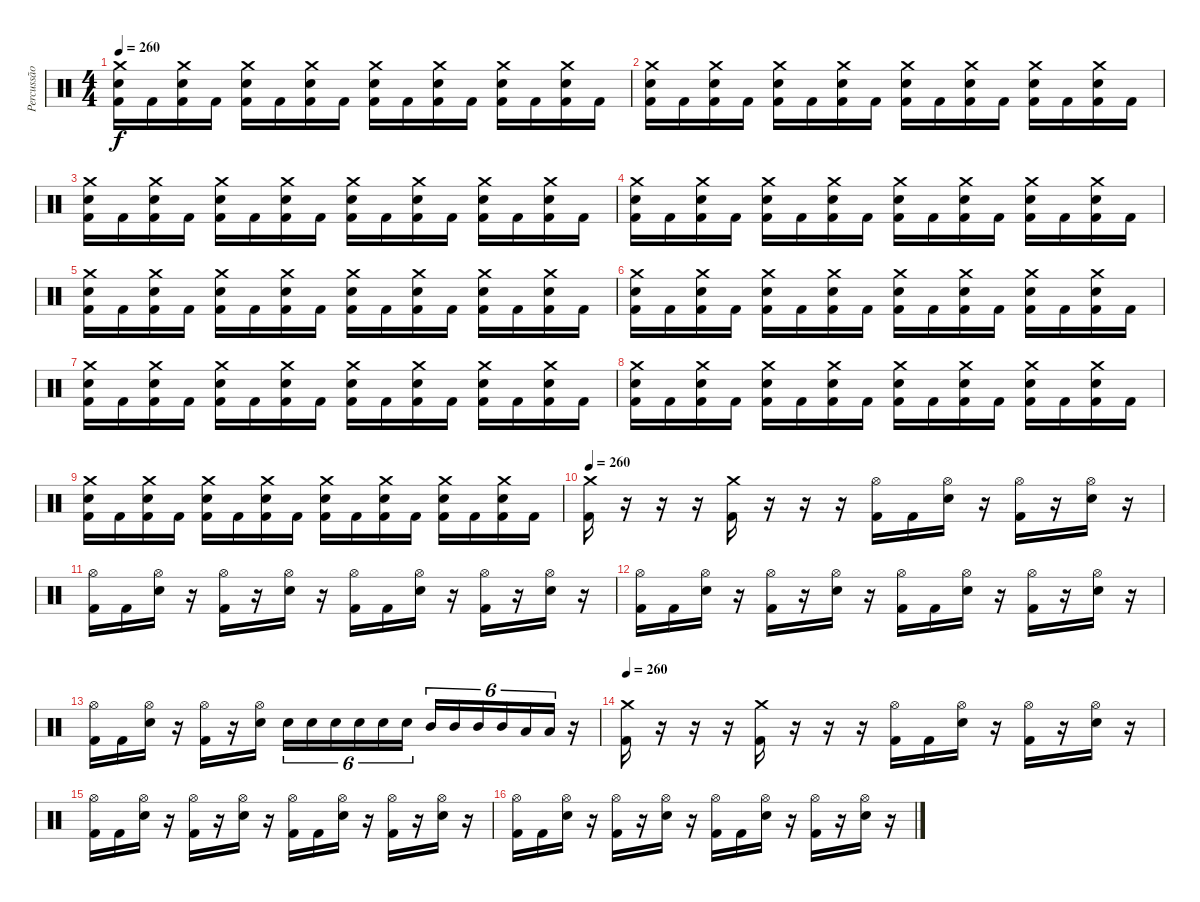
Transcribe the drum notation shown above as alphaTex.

\track ("Percussão" "Percussão") {instrument percussion}
\staff {score}
\articulation defaults
\ts (4 4)
\tempo 260
\clef neutral
\ks c
("Crash medium (hit)" "Snare (hit) 2" "Kick (hit) 2").16{dy f} "Kick (hit) 2".16 ("Crash medium (hit)" "Snare (hit) 2" "Kick (hit) 2").16 "Kick (hit) 2".16 ("Crash medium (hit)" "Snare (hit) 2" "Kick (hit) 2").16 "Kick (hit) 2".16 ("Crash medium (hit)" "Snare (hit) 2" "Kick (hit) 2").16 "Kick (hit) 2".16 ("Crash medium (hit)" "Snare (hit) 2" "Kick (hit) 2").16 "Kick (hit) 2".16 ("Crash medium (hit)" "Snare (hit) 2" "Kick (hit) 2").16 "Kick (hit) 2".16 ("Crash medium (hit)" "Snare (hit) 2" "Kick (hit) 2").16 "Kick (hit) 2".16 ("Crash medium (hit)" "Snare (hit) 2" "Kick (hit) 2").16 "Kick (hit) 2".16 |
("Crash medium (hit)" "Snare (hit) 2" "Kick (hit) 2").16 "Kick (hit) 2".16 ("Crash medium (hit)" "Snare (hit) 2" "Kick (hit) 2").16 "Kick (hit) 2".16 ("Crash medium (hit)" "Snare (hit) 2" "Kick (hit) 2").16 "Kick (hit) 2".16 ("Crash medium (hit)" "Snare (hit) 2" "Kick (hit) 2").16 "Kick (hit) 2".16 ("Crash medium (hit)" "Snare (hit) 2" "Kick (hit) 2").16 "Kick (hit) 2".16 ("Crash medium (hit)" "Snare (hit) 2" "Kick (hit) 2").16 "Kick (hit) 2".16 ("Crash medium (hit)" "Snare (hit) 2" "Kick (hit) 2").16 "Kick (hit) 2".16 ("Crash medium (hit)" "Snare (hit) 2" "Kick (hit) 2").16 "Kick (hit) 2".16 |
("Crash medium (hit)" "Snare (hit) 2" "Kick (hit) 2").16 "Kick (hit) 2".16 ("Crash medium (hit)" "Snare (hit) 2" "Kick (hit) 2").16 "Kick (hit) 2".16 ("Crash medium (hit)" "Snare (hit) 2" "Kick (hit) 2").16 "Kick (hit) 2".16 ("Crash medium (hit)" "Snare (hit) 2" "Kick (hit) 2").16 "Kick (hit) 2".16 ("Crash medium (hit)" "Snare (hit) 2" "Kick (hit) 2").16 "Kick (hit) 2".16 ("Crash medium (hit)" "Snare (hit) 2" "Kick (hit) 2").16 "Kick (hit) 2".16 ("Crash medium (hit)" "Snare (hit) 2" "Kick (hit) 2").16 "Kick (hit) 2".16 ("Crash medium (hit)" "Snare (hit) 2" "Kick (hit) 2").16 "Kick (hit) 2".16 |
("Crash medium (hit)" "Snare (hit) 2" "Kick (hit) 2").16 "Kick (hit) 2".16 ("Crash medium (hit)" "Snare (hit) 2" "Kick (hit) 2").16 "Kick (hit) 2".16 ("Crash medium (hit)" "Snare (hit) 2" "Kick (hit) 2").16 "Kick (hit) 2".16 ("Crash medium (hit)" "Snare (hit) 2" "Kick (hit) 2").16 "Kick (hit) 2".16 ("Crash medium (hit)" "Snare (hit) 2" "Kick (hit) 2").16 "Kick (hit) 2".16 ("Crash medium (hit)" "Snare (hit) 2" "Kick (hit) 2").16 "Kick (hit) 2".16 ("Crash medium (hit)" "Snare (hit) 2" "Kick (hit) 2").16 "Kick (hit) 2".16 ("Crash medium (hit)" "Snare (hit) 2" "Kick (hit) 2").16 "Kick (hit) 2".16 |
("Crash medium (hit)" "Snare (hit) 2" "Kick (hit) 2").16 "Kick (hit) 2".16 ("Crash medium (hit)" "Snare (hit) 2" "Kick (hit) 2").16 "Kick (hit) 2".16 ("Crash medium (hit)" "Snare (hit) 2" "Kick (hit) 2").16 "Kick (hit) 2".16 ("Crash medium (hit)" "Snare (hit) 2" "Kick (hit) 2").16 "Kick (hit) 2".16 ("Crash medium (hit)" "Snare (hit) 2" "Kick (hit) 2").16 "Kick (hit) 2".16 ("Crash medium (hit)" "Snare (hit) 2" "Kick (hit) 2").16 "Kick (hit) 2".16 ("Crash medium (hit)" "Snare (hit) 2" "Kick (hit) 2").16 "Kick (hit) 2".16 ("Crash medium (hit)" "Snare (hit) 2" "Kick (hit) 2").16 "Kick (hit) 2".16 |
("Crash medium (hit)" "Snare (hit) 2" "Kick (hit) 2").16 "Kick (hit) 2".16 ("Crash medium (hit)" "Snare (hit) 2" "Kick (hit) 2").16 "Kick (hit) 2".16 ("Crash medium (hit)" "Snare (hit) 2" "Kick (hit) 2").16 "Kick (hit) 2".16 ("Crash medium (hit)" "Snare (hit) 2" "Kick (hit) 2").16 "Kick (hit) 2".16 ("Crash medium (hit)" "Snare (hit) 2" "Kick (hit) 2").16 "Kick (hit) 2".16 ("Crash medium (hit)" "Snare (hit) 2" "Kick (hit) 2").16 "Kick (hit) 2".16 ("Crash medium (hit)" "Snare (hit) 2" "Kick (hit) 2").16 "Kick (hit) 2".16 ("Crash medium (hit)" "Snare (hit) 2" "Kick (hit) 2").16 "Kick (hit) 2".16 |
("Crash medium (hit)" "Snare (hit) 2" "Kick (hit) 2").16 "Kick (hit) 2".16 ("Crash medium (hit)" "Snare (hit) 2" "Kick (hit) 2").16 "Kick (hit) 2".16 ("Crash medium (hit)" "Snare (hit) 2" "Kick (hit) 2").16 "Kick (hit) 2".16 ("Crash medium (hit)" "Snare (hit) 2" "Kick (hit) 2").16 "Kick (hit) 2".16 ("Crash medium (hit)" "Snare (hit) 2" "Kick (hit) 2").16 "Kick (hit) 2".16 ("Crash medium (hit)" "Snare (hit) 2" "Kick (hit) 2").16 "Kick (hit) 2".16 ("Crash medium (hit)" "Snare (hit) 2" "Kick (hit) 2").16 "Kick (hit) 2".16 ("Crash medium (hit)" "Snare (hit) 2" "Kick (hit) 2").16 "Kick (hit) 2".16 |
("Crash medium (hit)" "Snare (hit) 2" "Kick (hit) 2").16 "Kick (hit) 2".16 ("Crash medium (hit)" "Snare (hit) 2" "Kick (hit) 2").16 "Kick (hit) 2".16 ("Crash medium (hit)" "Snare (hit) 2" "Kick (hit) 2").16 "Kick (hit) 2".16 ("Crash medium (hit)" "Snare (hit) 2" "Kick (hit) 2").16 "Kick (hit) 2".16 ("Crash medium (hit)" "Snare (hit) 2" "Kick (hit) 2").16 "Kick (hit) 2".16 ("Crash medium (hit)" "Snare (hit) 2" "Kick (hit) 2").16 "Kick (hit) 2".16 ("Crash medium (hit)" "Snare (hit) 2" "Kick (hit) 2").16 "Kick (hit) 2".16 ("Crash medium (hit)" "Snare (hit) 2" "Kick (hit) 2").16 "Kick (hit) 2".16 |
("Crash medium (hit)" "Snare (hit) 2" "Kick (hit) 2").16 "Kick (hit) 2".16 ("Crash medium (hit)" "Snare (hit) 2" "Kick (hit) 2").16 "Kick (hit) 2".16 ("Crash medium (hit)" "Snare (hit) 2" "Kick (hit) 2").16 "Kick (hit) 2".16 ("Crash medium (hit)" "Snare (hit) 2" "Kick (hit) 2").16 "Kick (hit) 2".16 ("Crash medium (hit)" "Snare (hit) 2" "Kick (hit) 2").16 "Kick (hit) 2".16 ("Crash medium (hit)" "Snare (hit) 2" "Kick (hit) 2").16 "Kick (hit) 2".16 ("Crash medium (hit)" "Snare (hit) 2" "Kick (hit) 2").16 "Kick (hit) 2".16 ("Crash medium (hit)" "Snare (hit) 2" "Kick (hit) 2").16 "Kick (hit) 2".16 |
\tempo 260
("Crash medium (hit)" "Kick (hit) 2").16 r.16 r.16 r.16 ("Crash medium (hit)" "Kick (hit) 2").16 r.16 r.16 r.16 ("Hi-Hat (open)" "Kick (hit) 2").16 "Kick (hit) 2".16 ("Hi-Hat (open)" "Snare (hit) 2").16 r.16 ("Hi-Hat (open)" "Kick (hit) 2").16 r.16 ("Hi-Hat (open)" "Snare (hit) 2").16 r.16 |
("Hi-Hat (open)" "Kick (hit) 2").16 "Kick (hit) 2".16 ("Hi-Hat (open)" "Snare (hit) 2").16 r.16 ("Hi-Hat (open)" "Kick (hit) 2").16 r.16 ("Hi-Hat (open)" "Snare (hit) 2").16 r.16 ("Hi-Hat (open)" "Kick (hit) 2").16 "Kick (hit) 2".16 ("Hi-Hat (open)" "Snare (hit) 2").16 r.16 ("Hi-Hat (open)" "Kick (hit) 2").16 r.16 ("Hi-Hat (open)" "Snare (hit) 2").16 r.16 |
("Hi-Hat (open)" "Kick (hit) 2").16 "Kick (hit) 2".16 ("Hi-Hat (open)" "Snare (hit) 2").16 r.16 ("Hi-Hat (open)" "Kick (hit) 2").16 r.16 ("Hi-Hat (open)" "Snare (hit) 2").16 r.16 ("Hi-Hat (open)" "Kick (hit) 2").16 "Kick (hit) 2".16 ("Hi-Hat (open)" "Snare (hit) 2").16 r.16 ("Hi-Hat (open)" "Kick (hit) 2").16 r.16 ("Hi-Hat (open)" "Snare (hit) 2").16 r.16 |
("Hi-Hat (open)" "Kick (hit) 2").16 "Kick (hit) 2".16 ("Hi-Hat (open)" "Snare (hit) 2").16 r.16 ("Hi-Hat (open)" "Kick (hit) 2").16 r.16 ("Hi-Hat (open)" "Snare (hit) 2").16 "Snare (hit) 2".16{tu (6 4)} "Snare (hit) 2".16{tu (6 4)} "Snare (hit) 2".16{tu (6 4)} "Snare (hit) 2".16{tu (6 4)} "Snare (hit) 2".16{tu (6 4)} "Snare (hit) 2".16{tu (6 4)} "Mid Tom (hit)".16{tu (6 4)} "Mid Tom (hit)".16{tu (6 4)} "Mid Tom (hit)".16{tu (6 4)} "Mid Tom (hit)".16{tu (6 4)} "Low Tom (hit)".16{tu (6 4)} "Low Tom (hit)".16{tu (6 4)} r.16 |
\tempo 260
("Crash medium (hit)" "Kick (hit) 2").16 r.16 r.16 r.16 ("Crash medium (hit)" "Kick (hit) 2").16 r.16 r.16 r.16 ("Hi-Hat (open)" "Kick (hit) 2").16 "Kick (hit) 2".16 ("Hi-Hat (open)" "Snare (hit) 2").16 r.16 ("Hi-Hat (open)" "Kick (hit) 2").16 r.16 ("Hi-Hat (open)" "Snare (hit) 2").16 r.16 |
("Hi-Hat (open)" "Kick (hit) 2").16 "Kick (hit) 2".16 ("Hi-Hat (open)" "Snare (hit) 2").16 r.16 ("Hi-Hat (open)" "Kick (hit) 2").16 r.16 ("Hi-Hat (open)" "Snare (hit) 2").16 r.16 ("Hi-Hat (open)" "Kick (hit) 2").16 "Kick (hit) 2".16 ("Hi-Hat (open)" "Snare (hit) 2").16 r.16 ("Hi-Hat (open)" "Kick (hit) 2").16 r.16 ("Hi-Hat (open)" "Snare (hit) 2").16 r.16 |
("Hi-Hat (open)" "Kick (hit) 2").16 "Kick (hit) 2".16 ("Hi-Hat (open)" "Snare (hit) 2").16 r.16 ("Hi-Hat (open)" "Kick (hit) 2").16 r.16 ("Hi-Hat (open)" "Snare (hit) 2").16 r.16 ("Hi-Hat (open)" "Kick (hit) 2").16 "Kick (hit) 2".16 ("Hi-Hat (open)" "Snare (hit) 2").16 r.16 ("Hi-Hat (open)" "Kick (hit) 2").16 r.16 ("Hi-Hat (open)" "Snare (hit) 2").16 r.16
